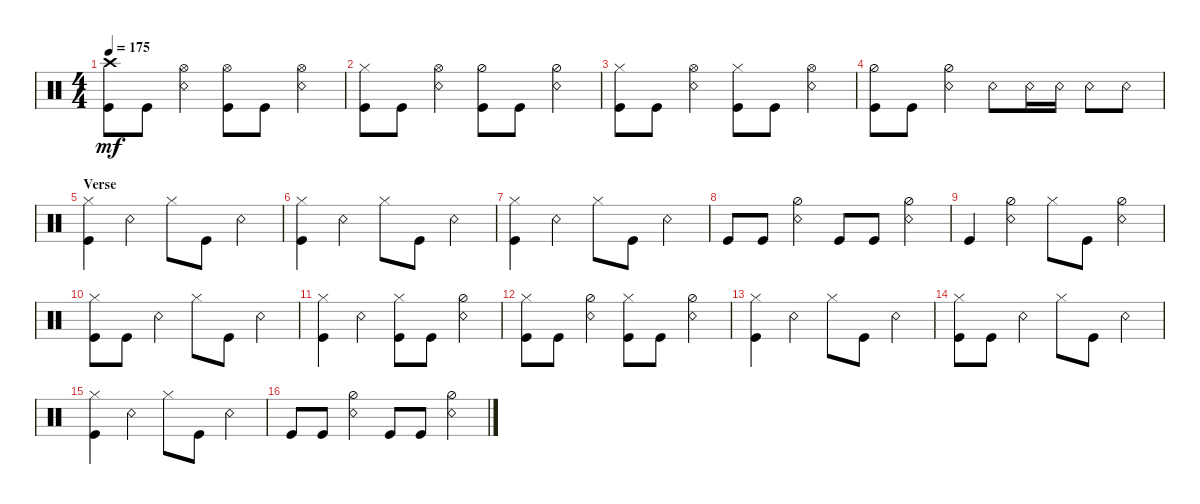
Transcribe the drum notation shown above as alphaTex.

\defaultSystemsLayout 4
\bracketExtendMode groupsimilarinstruments
\singleTrackTrackNamePolicy hidden
\multiTrackTrackNamePolicy hidden
\firstSystemTrackNameOrientation horizontal
\otherSystemsTrackNameOrientation horizontal
\track ("Drumkit" "Drums") {solo instrument percussion}
\staff {score}
\articulation defaults
\ts (4 4)
\tempo 175
\clef neutral
\ks c
("Kick (hit)" "Crash high (hit)").8{dy mf} "Kick (hit)".8 ("Snare (rim shot)" "Hi-Hat (open)").4 ("Kick (hit)" "Hi-Hat (open)").8 "Kick (hit)".8 ("Snare (rim shot)" "Hi-Hat (open)").4 |
("Kick (hit)" "Hi-Hat (closed)").8 "Kick (hit)".8 ("Snare (rim shot)" "Hi-Hat (open)").4 ("Kick (hit)" "Hi-Hat (half)").8 "Kick (hit)".8 ("Snare (rim shot)" "Hi-Hat (half)").4 |
("Kick (hit)" "Hi-Hat (closed)").8 "Kick (hit)".8 ("Snare (rim shot)" "Hi-Hat (open)").4 ("Kick (hit)" "Hi-Hat (closed)").8 "Kick (hit)".8 ("Snare (rim shot)" "Hi-Hat (open)").4 |
("Kick (hit)" "Hi-Hat (half)").8 "Kick (hit)".8 ("Snare (rim shot)" "Hi-Hat (half)").4 "Snare (rim shot)".8 "Snare (rim shot)".16 "Snare (rim shot)".16 "Snare (rim shot)".8 "Snare (rim shot)".8 |
\section ("" "Verse")
("Kick (hit)" "Hi-Hat (closed)").4 "Snare (rim shot)".4 "Hi-Hat (closed)".8 "Kick (hit)".8 "Snare (rim shot)".4 |
("Kick (hit)" "Hi-Hat (closed)").4 "Snare (rim shot)".4 "Hi-Hat (closed)".8 "Kick (hit)".8 "Snare (rim shot)".4 |
("Kick (hit)" "Hi-Hat (closed)").4 "Snare (rim shot)".4 "Hi-Hat (closed)".8 "Kick (hit)".8 "Snare (rim shot)".4 |
"Kick (hit)".8 "Kick (hit)".8 ("Snare (rim shot)" "Hi-Hat (half)").4 "Kick (hit)".8 "Kick (hit)".8 ("Snare (rim shot)" "Hi-Hat (half)").4 |
"Kick (hit)".4 ("Snare (rim shot)" "Hi-Hat (half)").4 "Hi-Hat (closed)".8 "Kick (hit)".8 ("Snare (rim shot)" "Hi-Hat (half)").4 |
("Kick (hit)" "Hi-Hat (closed)").8 "Kick (hit)".8 "Snare (rim shot)".4 "Hi-Hat (closed)".8 "Kick (hit)".8 "Snare (rim shot)".4 |
("Kick (hit)" "Hi-Hat (closed)").4 "Snare (rim shot)".4 ("Kick (hit)" "Hi-Hat (closed)").8 "Kick (hit)".8 ("Snare (rim shot)" "Hi-Hat (half)").4 |
("Kick (hit)" "Hi-Hat (closed)").8 "Kick (hit)".8 ("Snare (rim shot)" "Hi-Hat (half)").4 ("Kick (hit)" "Hi-Hat (closed)").8 "Kick (hit)".8 ("Snare (rim shot)" "Hi-Hat (half)").4 |
("Kick (hit)" "Hi-Hat (closed)").4 "Snare (rim shot)".4 "Hi-Hat (closed)".8 "Kick (hit)".8 "Snare (rim shot)".4 |
("Kick (hit)" "Hi-Hat (closed)").8 "Kick (hit)".8 "Snare (rim shot)".4 "Hi-Hat (closed)".8 "Kick (hit)".8 "Snare (rim shot)".4 |
("Kick (hit)" "Hi-Hat (closed)").4 "Snare (rim shot)".4 "Hi-Hat (closed)".8 "Kick (hit)".8 "Snare (rim shot)".4 |
"Kick (hit)".8 "Kick (hit)".8 ("Snare (rim shot)" "Hi-Hat (half)").4 "Kick (hit)".8 "Kick (hit)".8 ("Snare (rim shot)" "Hi-Hat (half)").4
